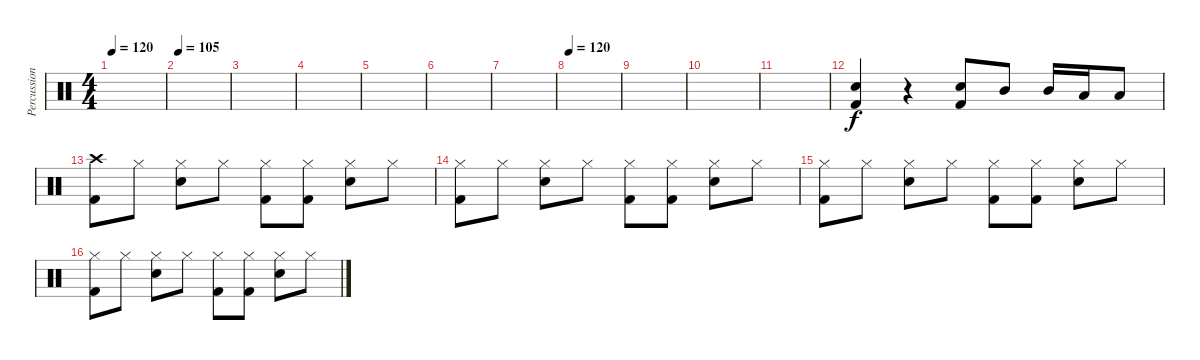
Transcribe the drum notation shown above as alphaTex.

\track ("Percussion" "Percussion") {instrument percussion}
\staff {score}
\articulation defaults
\ts (4 4)
\tempo 120
\clef neutral
\ks c
|
\tempo 105
|
|
|
|
|
|
\tempo 120
|
|
|
|
("Electric Snare (hit)" "Kick (hit) 2").4 r.4 ("Electric Snare (hit)" "Kick (hit) 2").8 "Mid Tom (hit)".8 "Mid Tom (hit)".16 "Low Tom (hit)".16 "Low Tom (hit)".8 |
("Crash high (hit)" "Kick (hit) 2").8 "Hi-Hat (closed)".8 ("Hi-Hat (closed)" "Electric Snare (hit)").8 "Hi-Hat (closed)".8 ("Hi-Hat (closed)" "Kick (hit) 2").8 ("Hi-Hat (closed)" "Kick (hit) 2").8 ("Hi-Hat (closed)" "Electric Snare (hit)").8 "Hi-Hat (closed)".8 |
("Hi-Hat (closed)" "Kick (hit) 2").8 "Hi-Hat (closed)".8 ("Hi-Hat (closed)" "Electric Snare (hit)").8 "Hi-Hat (closed)".8 ("Hi-Hat (closed)" "Kick (hit) 2").8 ("Hi-Hat (closed)" "Kick (hit) 2").8 ("Hi-Hat (closed)" "Electric Snare (hit)").8 "Hi-Hat (closed)".8 |
("Hi-Hat (closed)" "Kick (hit) 2").8 "Hi-Hat (closed)".8 ("Hi-Hat (closed)" "Electric Snare (hit)").8 "Hi-Hat (closed)".8 ("Hi-Hat (closed)" "Kick (hit) 2").8 ("Hi-Hat (closed)" "Kick (hit) 2").8 ("Hi-Hat (closed)" "Electric Snare (hit)").8 "Hi-Hat (closed)".8 |
("Hi-Hat (closed)" "Kick (hit) 2").8 "Hi-Hat (closed)".8 ("Hi-Hat (closed)" "Electric Snare (hit)").8 "Hi-Hat (closed)".8 ("Hi-Hat (closed)" "Kick (hit) 2").8 ("Hi-Hat (closed)" "Kick (hit) 2").8 ("Hi-Hat (closed)" "Electric Snare (hit)").8 "Hi-Hat (closed)".8
